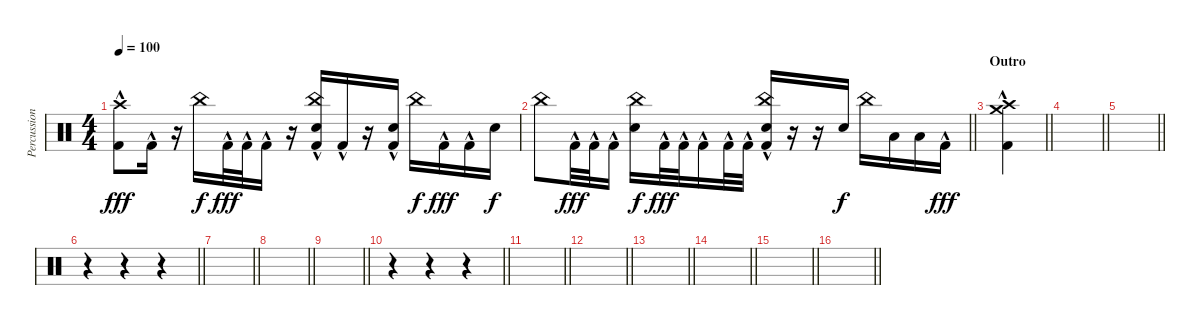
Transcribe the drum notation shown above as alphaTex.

\track ("Percussion" "Percussion") {instrument percussion}
\staff {score}
\articulation defaults
\ts (4 4)
\tempo 100
\clef neutral
\ks c
("Crash high (hit)" "Kick (hit) 2"{hac}).8{dy fff} "Kick (hit) 2"{hac}.16 r.16 "China (hit)".16{dy f} "Kick (hit) 2"{hac}.32{dy fff} "Kick (hit) 2"{hac}.32 "Kick (hit) 2"{hac}.16 r.16 ("Electric Snare (hit)" "China (hit)" "Kick (hit) 2"{hac}).16 "Kick (hit) 2"{hac}.16 r.16 ("Electric Snare (hit)" "Kick (hit) 2"{hac}).16 "China (hit)".16{dy f} "Kick (hit) 2"{hac}.16{dy fff} "Kick (hit) 2"{hac}.16 "Electric Snare (hit)".16{dy f} |
\barLineRight lightlight "China (hit)".8 "Kick (hit) 2"{hac}.32{dy fff} "Kick (hit) 2"{hac}.32 "Kick (hit) 2"{hac}.16
("Electric Snare (hit)" "China (hit)").16{dy f} "Kick (hit) 2"{hac}.32{dy fff} "Kick (hit) 2"{hac}.32 "Kick (hit) 2"{hac}.16 "Kick (hit) 2"{hac}.32 "Kick (hit) 2"{hac}.32 ("Kick (hit) 2"{hac} "Electric Snare (hit)" "China (hit)").16 r.16 r.16 "Electric Snare (hit)".16{dy f} "China (hit)".16 "Low Tom (hit)".16 "Low Floor Tom (hit)".16 "Kick (hit) 2"{hac}.16{dy fff} |
\section ("" "Outro")
\barLineRight lightlight
("Crash high (hit)" "Crash medium (hit)" "Kick (hit) 2"{hac}).4 |
\barLineRight lightlight
|
\barLineRight lightlight
|
\barLineRight lightlight
r.4 r.4 r.4 |
\barLineRight lightlight
|
\barLineRight lightlight
|
\barLineRight lightlight
|
\barLineRight lightlight
r.4 r.4 r.4 |
\barLineRight lightlight
\ks aminor
|
\barLineRight lightlight
|
\barLineRight lightlight
|
\barLineRight lightlight
|
\barLineRight lightlight
|
\barLineRight lightlight
